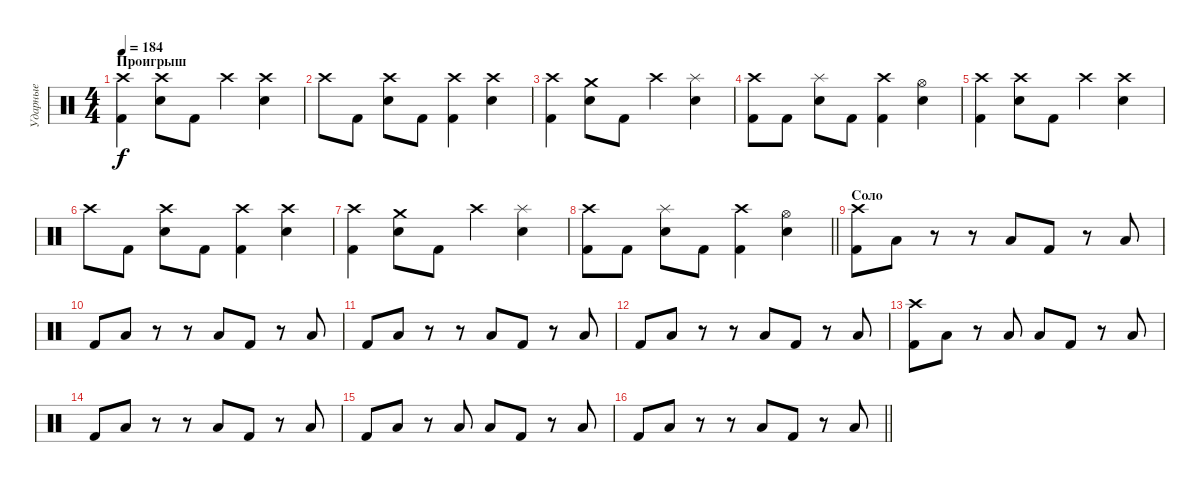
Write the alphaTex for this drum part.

\track ("Ударные" "Ударные") {instrument percussion}
\staff {score}
\articulation defaults
\ts (4 4)
\section ("" "Проигрыш ")
\tempo 184
\clef neutral
\ks c
("Crash high (hit)" "Kick (hit) 2").4{dy f} ("Crash high (hit)" "Snare (hit) 2").8 "Kick (hit) 2".8 "Crash high (hit)".4 ("Crash high (hit)" "Snare (hit) 2").4 |
"Crash high (hit)".8 "Kick (hit) 2".8 ("Crash high (hit)" "Snare (hit) 2").8 "Kick (hit) 2".8 ("Crash high (hit)" "Kick (hit) 2").4 ("Crash high (hit)" "Snare (hit) 2").4 |
("Crash high (hit)" "Kick (hit) 2").4 ("Crash medium (hit)" "Snare (hit) 2").8 "Kick (hit) 2".8 "Crash high (hit)".4 ("Splash (hit)" "Snare (hit) 2").4 |
("Crash high (hit)" "Kick (hit) 2").8 "Kick (hit) 2".8 ("Splash (hit)" "Snare (hit) 2").8 "Kick (hit) 2".8 ("Crash high (hit)" "Kick (hit) 2").4 ("Hi-Hat (open)" "Snare (hit) 2").4 |
("Crash high (hit)" "Kick (hit) 2").4 ("Crash high (hit)" "Snare (hit) 2").8 "Kick (hit) 2".8 "Crash high (hit)".4 ("Crash high (hit)" "Snare (hit) 2").4 |
"Crash high (hit)".8 "Kick (hit) 2".8 ("Crash high (hit)" "Snare (hit) 2").8 "Kick (hit) 2".8 ("Crash high (hit)" "Kick (hit) 2").4 ("Crash high (hit)" "Snare (hit) 2").4 |
("Crash high (hit)" "Kick (hit) 2").4 ("Crash medium (hit)" "Snare (hit) 2").8 "Kick (hit) 2".8 "Crash high (hit)".4 ("Splash (hit)" "Snare (hit) 2").4 |
\barLineRight lightlight
("Crash high (hit)" "Kick (hit) 2").8 "Kick (hit) 2".8 ("Splash (hit)" "Snare (hit) 2").8 "Kick (hit) 2".8 ("Crash high (hit)" "Kick (hit) 2").4 ("Hi-Hat (open)" "Snare (hit) 2").4 |
\section ("" "Соло")
("Crash high (hit)" "Kick (hit) 2").8 "Low Tom (hit)".8 r.8 r.8 "Low Tom (hit)".8 "Kick (hit) 2".8 r.8 "Low Tom (hit)".8 |
"Kick (hit) 2".8 "Low Tom (hit)".8 r.8 r.8 "Low Tom (hit)".8 "Kick (hit) 2".8 r.8 "Low Tom (hit)".8 |
"Kick (hit) 2".8 "Low Tom (hit)".8 r.8 r.8 "Low Tom (hit)".8 "Kick (hit) 2".8 r.8 "Low Tom (hit)".8 |
"Kick (hit) 2".8 "Low Tom (hit)".8 r.8 r.8 "Low Tom (hit)".8 "Kick (hit) 2".8 r.8 "Low Tom (hit)".8 |
("Crash high (hit)" "Kick (hit) 2").8 "Low Tom (hit)".8 r.8 "Low Floor Tom (hit)".8 "Low Tom (hit)".8 "Kick (hit) 2".8 r.8 "Low Tom (hit)".8 |
"Kick (hit) 2".8 "Low Tom (hit)".8 r.8 r.8 "Low Tom (hit)".8 "Kick (hit) 2".8 r.8 "Low Tom (hit)".8 |
"Kick (hit) 2".8 "Low Tom (hit)".8 r.8 "Low Floor Tom (hit)".8 "Low Tom (hit)".8 "Kick (hit) 2".8 r.8 "Low Tom (hit)".8 |
\barLineRight lightlight "Kick (hit) 2".8 "Low Tom (hit)".8
r.8 r.8 "Low Tom (hit)".8 "Kick (hit) 2".8 r.8 "Low Tom (hit)".8
